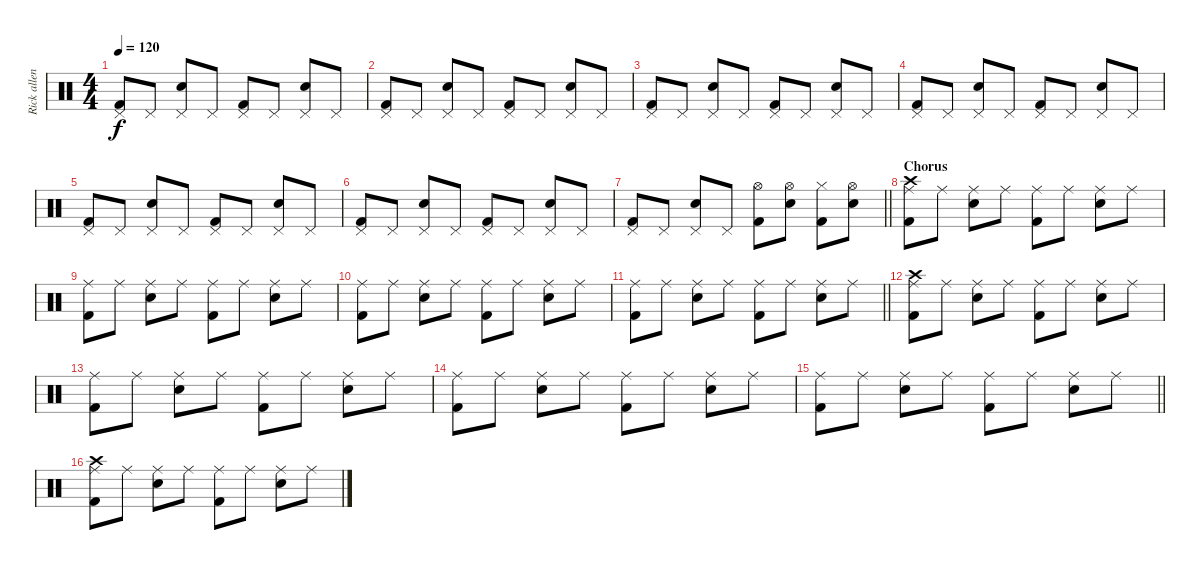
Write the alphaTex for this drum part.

\track ("Rick allen" "Rick allen") {instrument percussion}
\staff {score}
\articulation defaults
\ts (4 4)
\tempo 120
\clef neutral
\ks c
("Pedal Hi-Hat (hit)" "Kick (hit) 2").8{dy f} "Pedal Hi-Hat (hit)".8 ("Pedal Hi-Hat (hit)" "Snare (hit) 2").8 "Pedal Hi-Hat (hit)".8 ("Pedal Hi-Hat (hit)" "Kick (hit) 2").8 "Pedal Hi-Hat (hit)".8 ("Pedal Hi-Hat (hit)" "Snare (hit) 2").8 "Pedal Hi-Hat (hit)".8 |
("Pedal Hi-Hat (hit)" "Kick (hit) 2").8 "Pedal Hi-Hat (hit)".8 ("Pedal Hi-Hat (hit)" "Snare (hit) 2").8 "Pedal Hi-Hat (hit)".8 ("Pedal Hi-Hat (hit)" "Kick (hit) 2").8 "Pedal Hi-Hat (hit)".8 ("Pedal Hi-Hat (hit)" "Snare (hit) 2").8 "Pedal Hi-Hat (hit)".8 |
("Pedal Hi-Hat (hit)" "Kick (hit) 2").8 "Pedal Hi-Hat (hit)".8 ("Pedal Hi-Hat (hit)" "Snare (hit) 2").8 "Pedal Hi-Hat (hit)".8 ("Pedal Hi-Hat (hit)" "Kick (hit) 2").8 "Pedal Hi-Hat (hit)".8 ("Pedal Hi-Hat (hit)" "Snare (hit) 2").8 "Pedal Hi-Hat (hit)".8 |
("Pedal Hi-Hat (hit)" "Kick (hit) 2").8 "Pedal Hi-Hat (hit)".8 ("Pedal Hi-Hat (hit)" "Snare (hit) 2").8 "Pedal Hi-Hat (hit)".8 ("Pedal Hi-Hat (hit)" "Kick (hit) 2").8 "Pedal Hi-Hat (hit)".8 ("Pedal Hi-Hat (hit)" "Snare (hit) 2").8 "Pedal Hi-Hat (hit)".8 |
("Pedal Hi-Hat (hit)" "Kick (hit) 2").8 "Pedal Hi-Hat (hit)".8 ("Pedal Hi-Hat (hit)" "Snare (hit) 2").8 "Pedal Hi-Hat (hit)".8 ("Pedal Hi-Hat (hit)" "Kick (hit) 2").8 "Pedal Hi-Hat (hit)".8 ("Pedal Hi-Hat (hit)" "Snare (hit) 2").8 "Pedal Hi-Hat (hit)".8 |
("Pedal Hi-Hat (hit)" "Kick (hit) 2").8 "Pedal Hi-Hat (hit)".8 ("Pedal Hi-Hat (hit)" "Snare (hit) 2").8 "Pedal Hi-Hat (hit)".8 ("Pedal Hi-Hat (hit)" "Kick (hit) 2").8 "Pedal Hi-Hat (hit)".8 ("Pedal Hi-Hat (hit)" "Snare (hit) 2").8 "Pedal Hi-Hat (hit)".8 |
\barLineRight lightlight
("Pedal Hi-Hat (hit)" "Kick (hit) 2").8 "Pedal Hi-Hat (hit)".8 ("Pedal Hi-Hat (hit)" "Snare (hit) 2").8 "Pedal Hi-Hat (hit)".8 ("Hi-Hat (open)" "Kick (hit) 2").8 ("Hi-Hat (open)" "Snare (hit) 2").8 ("Hi-Hat (closed)" "Kick (hit) 2").8 ("Hi-Hat (open)" "Snare (hit) 2").8 |
\section ("" "Chorus")
("Crash high (hit)" "Ride (middle)" "Kick (hit) 2").8 "Ride (middle)".8 ("Ride (middle)" "Snare (hit) 2").8 "Ride (middle)".8 ("Ride (middle)" "Kick (hit) 2").8 "Ride (middle)".8 ("Ride (middle)" "Snare (hit) 2").8 "Ride (middle)".8 |
("Ride (middle)" "Kick (hit) 2").8 "Ride (middle)".8 ("Ride (middle)" "Snare (hit) 2").8 "Ride (middle)".8 ("Ride (middle)" "Kick (hit) 2").8 "Ride (middle)".8 ("Ride (middle)" "Snare (hit) 2").8 "Ride (middle)".8 |
("Ride (middle)" "Kick (hit) 2").8 "Ride (middle)".8 ("Ride (middle)" "Snare (hit) 2").8 "Ride (middle)".8 ("Ride (middle)" "Kick (hit) 2").8 "Ride (middle)".8 ("Ride (middle)" "Snare (hit) 2").8 "Ride (middle)".8 |
\barLineRight lightlight
("Ride (middle)" "Kick (hit) 2").8 "Ride (middle)".8 ("Ride (middle)" "Snare (hit) 2").8 "Ride (middle)".8 ("Ride (middle)" "Kick (hit) 2").8 "Ride (middle)".8 ("Ride (middle)" "Snare (hit) 2").8 "Ride (middle)".8 |
("Crash high (hit)" "Ride (middle)" "Kick (hit) 2").8 "Ride (middle)".8 ("Ride (middle)" "Snare (hit) 2").8 "Ride (middle)".8 ("Ride (middle)" "Kick (hit) 2").8 "Ride (middle)".8 ("Ride (middle)" "Snare (hit) 2").8 "Ride (middle)".8 |
("Ride (middle)" "Kick (hit) 2").8 "Ride (middle)".8 ("Ride (middle)" "Snare (hit) 2").8 "Ride (middle)".8 ("Ride (middle)" "Kick (hit) 2").8 "Ride (middle)".8 ("Ride (middle)" "Snare (hit) 2").8 "Ride (middle)".8 |
("Ride (middle)" "Kick (hit) 2").8 "Ride (middle)".8 ("Ride (middle)" "Snare (hit) 2").8 "Ride (middle)".8 ("Ride (middle)" "Kick (hit) 2").8 "Ride (middle)".8 ("Ride (middle)" "Snare (hit) 2").8 "Ride (middle)".8 |
\barLineRight lightlight
("Ride (middle)" "Kick (hit) 2").8 "Ride (middle)".8 ("Ride (middle)" "Snare (hit) 2").8 "Ride (middle)".8 ("Ride (middle)" "Kick (hit) 2").8 "Ride (middle)".8 ("Ride (middle)" "Snare (hit) 2").8 "Ride (middle)".8 |
("Crash high (hit)" "Ride (middle)" "Kick (hit) 2").8 "Ride (middle)".8 ("Ride (middle)" "Snare (hit) 2").8 "Ride (middle)".8 ("Ride (middle)" "Kick (hit) 2").8 "Ride (middle)".8 ("Ride (middle)" "Snare (hit) 2").8 "Ride (middle)".8
